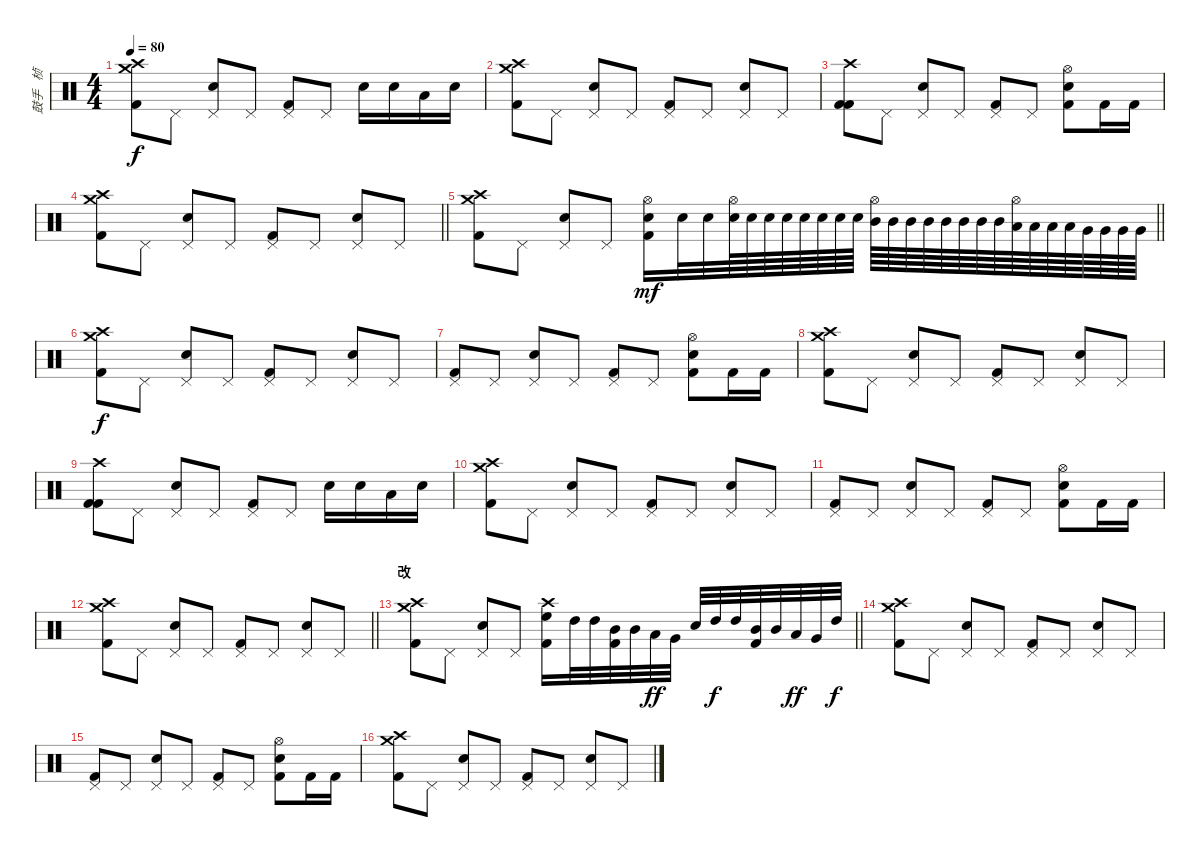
\track ("鼓手   桢" "鼓手   桢") {instrument percussion}
\staff {score}
\articulation defaults
\ts (4 4)
\tempo 80
\clef neutral
\ks c
("Crash high (hit)" "Crash medium (hit)" "Kick (hit) 2").8{dy f} "Pedal Hi-Hat (hit)".8 ("Pedal Hi-Hat (hit)" "Snare (hit) 2").8 "Pedal Hi-Hat (hit)".8 ("Pedal Hi-Hat (hit)" "Kick (hit) 2").8 "Pedal Hi-Hat (hit)".8 "Snare (hit) 2".16 "Snare (hit) 2".16 "Low Tom (hit)".16 "Snare (hit) 2".16 |
("Crash high (hit)" "Crash medium (hit)" "Kick (hit) 2").8 "Pedal Hi-Hat (hit)".8 ("Pedal Hi-Hat (hit)" "Snare (hit) 2").8 "Pedal Hi-Hat (hit)".8 ("Pedal Hi-Hat (hit)" "Kick (hit) 2").8 "Pedal Hi-Hat (hit)".8 ("Pedal Hi-Hat (hit)" "Snare (hit) 2").8 "Pedal Hi-Hat (hit)".8 |
("Crash high (hit)" "Kick (hit) 2" "Kick (hit) 2").8 "Pedal Hi-Hat (hit)".8 ("Pedal Hi-Hat (hit)" "Snare (hit) 2").8 "Pedal Hi-Hat (hit)".8 ("Pedal Hi-Hat (hit)" "Kick (hit) 2").8 "Pedal Hi-Hat (hit)".8 ("Hi-Hat (open)" "Snare (hit) 2" "Kick (hit) 2").8 "Kick (hit) 2".16 "Kick (hit) 2".16 |
\barLineRight lightlight
("Crash high (hit)" "Crash medium (hit)" "Kick (hit) 2").8 "Pedal Hi-Hat (hit)".8 ("Pedal Hi-Hat (hit)" "Snare (hit) 2").8 "Pedal Hi-Hat (hit)".8 ("Pedal Hi-Hat (hit)" "Kick (hit) 2").8 "Pedal Hi-Hat (hit)".8 ("Pedal Hi-Hat (hit)" "Snare (hit) 2").8 "Pedal Hi-Hat (hit)".8 |
\barLineRight lightlight
("Crash high (hit)" "Crash medium (hit)" "Kick (hit) 2").8 "Pedal Hi-Hat (hit)".8 ("Pedal Hi-Hat (hit)" "Snare (hit) 2").8 "Pedal Hi-Hat (hit)".8 ("Hi-Hat (open)" "Electric Snare (hit)" "Kick (hit) 2").16{dy mf} "Electric Snare (hit)".32 "Electric Snare (hit)".32 ("Hi-Hat (open)" "Electric Snare (hit)").64 "Electric Snare (hit)".64 "Electric Snare (hit)".64 "Electric Snare (hit)".64 "Electric Snare (hit)".64 "Electric Snare (hit)".64 "Electric Snare (hit)".64 "Electric Snare (hit)".64 ("Hi-Hat (open)" "Mid Tom (hit)").64 "Mid Tom (hit)".64 "Mid Tom (hit)".64 "Mid Tom (hit)".64 "Mid Tom (hit)".64 "Mid Tom (hit)".64 "Mid Tom (hit)".64 "Mid Tom (hit)".64 ("Hi-Hat (open)" "Low Tom (hit)").64 "Low Tom (hit)".64 "Low Tom (hit)".64 "Low Tom (hit)".64 "Very Low Tom (hit)".64 "Very Low Tom (hit)".64 "Very Low Tom (hit)".64 "Very Low Tom (hit)".64 |
("Crash high (hit)" "Crash medium (hit)" "Kick (hit) 2").8{dy f} "Pedal Hi-Hat (hit)".8 ("Pedal Hi-Hat (hit)" "Snare (hit) 2").8 "Pedal Hi-Hat (hit)".8 ("Pedal Hi-Hat (hit)" "Kick (hit) 2").8 "Pedal Hi-Hat (hit)".8 ("Pedal Hi-Hat (hit)" "Snare (hit) 2").8 "Pedal Hi-Hat (hit)".8 |
("Pedal Hi-Hat (hit)" "Kick (hit) 2").8 "Pedal Hi-Hat (hit)".8 ("Pedal Hi-Hat (hit)" "Snare (hit) 2").8 "Pedal Hi-Hat (hit)".8 ("Pedal Hi-Hat (hit)" "Kick (hit) 2").8 "Pedal Hi-Hat (hit)".8 ("Hi-Hat (open)" "Snare (hit) 2" "Kick (hit) 2").8 "Kick (hit) 2".16 "Kick (hit) 2".16 |
("Crash high (hit)" "Crash medium (hit)" "Kick (hit) 2").8 "Pedal Hi-Hat (hit)".8 ("Pedal Hi-Hat (hit)" "Snare (hit) 2").8 "Pedal Hi-Hat (hit)".8 ("Pedal Hi-Hat (hit)" "Kick (hit) 2").8 "Pedal Hi-Hat (hit)".8 ("Pedal Hi-Hat (hit)" "Snare (hit) 2").8 "Pedal Hi-Hat (hit)".8 |
("Crash high (hit)" "Kick (hit) 2" "Kick (hit) 2").8 "Pedal Hi-Hat (hit)".8 ("Pedal Hi-Hat (hit)" "Snare (hit) 2").8 "Pedal Hi-Hat (hit)".8 ("Pedal Hi-Hat (hit)" "Kick (hit) 2").8 "Pedal Hi-Hat (hit)".8 "Snare (hit) 2".16 "Snare (hit) 2".16 "Low Tom (hit)".16 "Snare (hit) 2".16 |
("Crash high (hit)" "Crash medium (hit)" "Kick (hit) 2").8 "Pedal Hi-Hat (hit)".8 ("Pedal Hi-Hat (hit)" "Snare (hit) 2").8 "Pedal Hi-Hat (hit)".8 ("Pedal Hi-Hat (hit)" "Kick (hit) 2").8 "Pedal Hi-Hat (hit)".8 ("Pedal Hi-Hat (hit)" "Snare (hit) 2").8 "Pedal Hi-Hat (hit)".8 |
("Pedal Hi-Hat (hit)" "Kick (hit) 2").8 "Pedal Hi-Hat (hit)".8 ("Pedal Hi-Hat (hit)" "Snare (hit) 2").8 "Pedal Hi-Hat (hit)".8 ("Pedal Hi-Hat (hit)" "Kick (hit) 2").8 "Pedal Hi-Hat (hit)".8 ("Hi-Hat (open)" "Snare (hit) 2" "Kick (hit) 2").8 "Kick (hit) 2".16 "Kick (hit) 2".16 |
\barLineRight lightlight
("Crash high (hit)" "Crash medium (hit)" "Kick (hit) 2").8 "Pedal Hi-Hat (hit)".8 ("Pedal Hi-Hat (hit)" "Snare (hit) 2").8 "Pedal Hi-Hat (hit)".8 ("Pedal Hi-Hat (hit)" "Kick (hit) 2").8 "Pedal Hi-Hat (hit)".8 ("Pedal Hi-Hat (hit)" "Snare (hit) 2").8 "Pedal Hi-Hat (hit)".8 |
\section ("" "改")
\barLineRight lightlight
("Crash high (hit)" "Crash medium (hit)" "Kick (hit) 2").8 "Pedal Hi-Hat (hit)".8 ("Pedal Hi-Hat (hit)" "Snare (hit) 2").8 "Pedal Hi-Hat (hit)".8 ("Crash high (hit)" "High Floor Tom (hit)" "Kick (hit) 2").16 "High Tom (hit)".32 "High Tom (hit)".32 ("Mid Tom (hit)" "Kick (hit) 2").32 "Mid Tom (hit)".32 "Low Tom (hit)".32{dy ff} "Very Low Tom (hit)".32 "Electric Snare (hit)".32 "High Tom (hit)".32{dy f} "High Tom (hit)".32 ("Mid Tom (hit)" "Kick (hit) 2").32 "Mid Tom (hit)".32 "Low Tom (hit)".32{dy ff} "Very Low Tom (hit)".32 "High Tom (hit)".32{dy f} |
("Crash high (hit)" "Crash medium (hit)" "Kick (hit) 2").8 "Pedal Hi-Hat (hit)".8 ("Pedal Hi-Hat (hit)" "Snare (hit) 2").8 "Pedal Hi-Hat (hit)".8 ("Pedal Hi-Hat (hit)" "Kick (hit) 2").8 "Pedal Hi-Hat (hit)".8 ("Pedal Hi-Hat (hit)" "Snare (hit) 2").8 "Pedal Hi-Hat (hit)".8 |
("Pedal Hi-Hat (hit)" "Kick (hit) 2").8 "Pedal Hi-Hat (hit)".8 ("Pedal Hi-Hat (hit)" "Snare (hit) 2").8 "Pedal Hi-Hat (hit)".8 ("Pedal Hi-Hat (hit)" "Kick (hit) 2").8 "Pedal Hi-Hat (hit)".8 ("Hi-Hat (open)" "Snare (hit) 2" "Kick (hit) 2").8 "Kick (hit) 2".16 "Kick (hit) 2".16 |
("Crash high (hit)" "Crash medium (hit)" "Kick (hit) 2").8 "Pedal Hi-Hat (hit)".8 ("Pedal Hi-Hat (hit)" "Snare (hit) 2").8 "Pedal Hi-Hat (hit)".8 ("Pedal Hi-Hat (hit)" "Kick (hit) 2").8 "Pedal Hi-Hat (hit)".8 ("Pedal Hi-Hat (hit)" "Snare (hit) 2").8 "Pedal Hi-Hat (hit)".8
